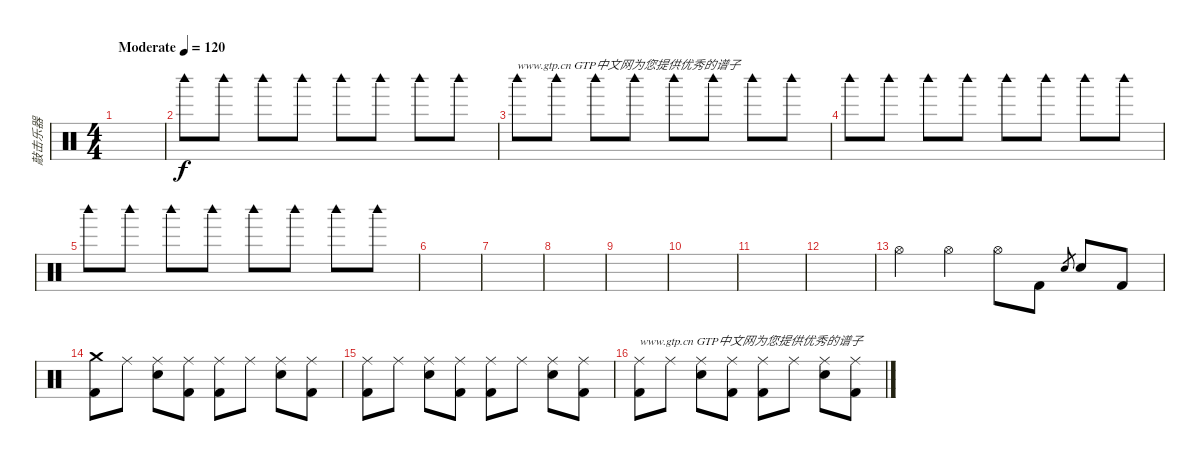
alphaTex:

\track ("敲击乐器" "敲击乐器") {instrument percussion}
\staff {score}
\articulation defaults
\ts (4 4)
\tempo (120 "Moderate")
\clef neutral
\ks c
|
"Woodblock high (hit)".8 "Woodblock high (hit)".8 "Woodblock high (hit)".8 "Woodblock high (hit)".8 "Woodblock high (hit)".8 "Woodblock high (hit)".8 "Woodblock high (hit)".8 "Woodblock high (hit)".8 |
"Woodblock high (hit)".8{txt "www.gtp.cn GTP中文网为您提供优秀的谱子"} "Woodblock high (hit)".8 "Woodblock high (hit)".8 "Woodblock high (hit)".8 "Woodblock high (hit)".8 "Woodblock high (hit)".8 "Woodblock high (hit)".8 "Woodblock high (hit)".8 |
"Woodblock high (hit)".8 "Woodblock high (hit)".8 "Woodblock high (hit)".8 "Woodblock high (hit)".8 "Woodblock high (hit)".8 "Woodblock high (hit)".8 "Woodblock high (hit)".8 "Woodblock high (hit)".8 |
"Woodblock high (hit)".8 "Woodblock high (hit)".8 "Woodblock high (hit)".8 "Woodblock high (hit)".8 "Woodblock high (hit)".8 "Woodblock high (hit)".8 "Woodblock high (hit)".8 "Woodblock high (hit)".8 |
|
|
|
|
|
|
|
"Hi-Hat (open)".4 "Hi-Hat (open)".4 "Hi-Hat (open)".8 "Kick (hit) 2".8 "Electric Snare (hit)".8{gr} "Electric Snare (hit)".8 "Kick (hit) 2".8 |
("Crash medium (hit)" "Kick (hit) 2").8 "Ride (middle)".8 ("Ride (middle)" "Electric Snare (hit)").8 ("Ride (middle)" "Kick (hit) 2").8 ("Ride (middle)" "Kick (hit) 2").8 "Ride (middle)".8 ("Ride (middle)" "Electric Snare (hit)").8 ("Ride (middle)" "Kick (hit) 2").8 |
("Ride (middle)" "Kick (hit) 2").8 "Ride (middle)".8 ("Ride (middle)" "Electric Snare (hit)").8 ("Ride (middle)" "Kick (hit) 2").8 ("Ride (middle)" "Kick (hit) 2").8 "Ride (middle)".8 ("Ride (middle)" "Electric Snare (hit)").8 ("Ride (middle)" "Kick (hit) 2").8 |
("Ride (middle)" "Kick (hit) 2").8{txt "www.gtp.cn GTP中文网为您提供优秀的谱子"} "Ride (middle)".8 ("Ride (middle)" "Electric Snare (hit)").8 ("Ride (middle)" "Kick (hit) 2").8 ("Ride (middle)" "Kick (hit) 2").8 "Ride (middle)".8 ("Ride (middle)" "Electric Snare (hit)").8 ("Ride (middle)" "Kick (hit) 2").8
